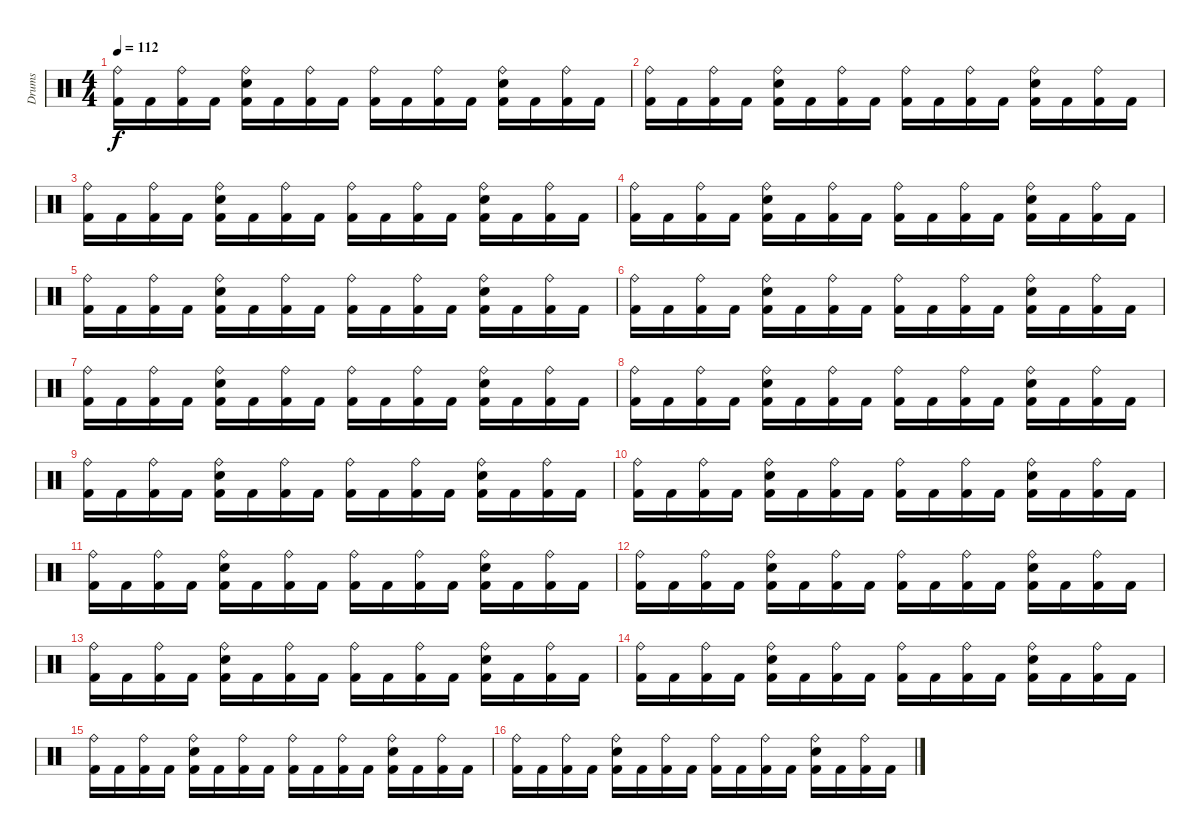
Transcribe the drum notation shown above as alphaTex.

\track ("Drums" "Drums") {instrument percussion}
\staff {score}
\articulation defaults
\ts (4 4)
\tempo 112
\clef neutral
\ks c
("Ride (bell)" "Kick (hit) 2").16{dy f} "Kick (hit) 2".16 ("Ride (bell)" "Kick (hit) 2").16 "Kick (hit) 2".16 ("Ride (bell)" "Electric Snare (hit)" "Kick (hit) 2").16 "Kick (hit) 2".16 ("Ride (bell)" "Kick (hit) 2").16 "Kick (hit) 2".16 ("Ride (bell)" "Kick (hit) 2").16 "Kick (hit) 2".16 ("Ride (bell)" "Kick (hit) 2").16 "Kick (hit) 2".16 ("Ride (bell)" "Electric Snare (hit)" "Kick (hit) 2").16 "Kick (hit) 2".16 ("Ride (bell)" "Kick (hit) 2").16 "Kick (hit) 2".16 |
("Ride (bell)" "Kick (hit) 2").16 "Kick (hit) 2".16 ("Ride (bell)" "Kick (hit) 2").16 "Kick (hit) 2".16 ("Ride (bell)" "Electric Snare (hit)" "Kick (hit) 2").16 "Kick (hit) 2".16 ("Ride (bell)" "Kick (hit) 2").16 "Kick (hit) 2".16 ("Ride (bell)" "Kick (hit) 2").16 "Kick (hit) 2".16 ("Ride (bell)" "Kick (hit) 2").16 "Kick (hit) 2".16 ("Ride (bell)" "Electric Snare (hit)" "Kick (hit) 2").16 "Kick (hit) 2".16 ("Ride (bell)" "Kick (hit) 2").16 "Kick (hit) 2".16 |
("Ride (bell)" "Kick (hit) 2").16 "Kick (hit) 2".16 ("Ride (bell)" "Kick (hit) 2").16 "Kick (hit) 2".16 ("Ride (bell)" "Electric Snare (hit)" "Kick (hit) 2").16 "Kick (hit) 2".16 ("Ride (bell)" "Kick (hit) 2").16 "Kick (hit) 2".16 ("Ride (bell)" "Kick (hit) 2").16 "Kick (hit) 2".16 ("Ride (bell)" "Kick (hit) 2").16 "Kick (hit) 2".16 ("Ride (bell)" "Electric Snare (hit)" "Kick (hit) 2").16 "Kick (hit) 2".16 ("Ride (bell)" "Kick (hit) 2").16 "Kick (hit) 2".16 |
("Ride (bell)" "Kick (hit) 2").16 "Kick (hit) 2".16 ("Ride (bell)" "Kick (hit) 2").16 "Kick (hit) 2".16 ("Ride (bell)" "Electric Snare (hit)" "Kick (hit) 2").16 "Kick (hit) 2".16 ("Ride (bell)" "Kick (hit) 2").16 "Kick (hit) 2".16 ("Ride (bell)" "Kick (hit) 2").16 "Kick (hit) 2".16 ("Ride (bell)" "Kick (hit) 2").16 "Kick (hit) 2".16 ("Ride (bell)" "Electric Snare (hit)" "Kick (hit) 2").16 "Kick (hit) 2".16 ("Ride (bell)" "Kick (hit) 2").16 "Kick (hit) 2".16 |
("Ride (bell)" "Kick (hit) 2").16 "Kick (hit) 2".16 ("Ride (bell)" "Kick (hit) 2").16 "Kick (hit) 2".16 ("Ride (bell)" "Electric Snare (hit)" "Kick (hit) 2").16 "Kick (hit) 2".16 ("Ride (bell)" "Kick (hit) 2").16 "Kick (hit) 2".16 ("Ride (bell)" "Kick (hit) 2").16 "Kick (hit) 2".16 ("Ride (bell)" "Kick (hit) 2").16 "Kick (hit) 2".16 ("Ride (bell)" "Electric Snare (hit)" "Kick (hit) 2").16 "Kick (hit) 2".16 ("Ride (bell)" "Kick (hit) 2").16 "Kick (hit) 2".16 |
("Ride (bell)" "Kick (hit) 2").16 "Kick (hit) 2".16 ("Ride (bell)" "Kick (hit) 2").16 "Kick (hit) 2".16 ("Ride (bell)" "Electric Snare (hit)" "Kick (hit) 2").16 "Kick (hit) 2".16 ("Ride (bell)" "Kick (hit) 2").16 "Kick (hit) 2".16 ("Ride (bell)" "Kick (hit) 2").16 "Kick (hit) 2".16 ("Ride (bell)" "Kick (hit) 2").16 "Kick (hit) 2".16 ("Ride (bell)" "Electric Snare (hit)" "Kick (hit) 2").16 "Kick (hit) 2".16 ("Ride (bell)" "Kick (hit) 2").16 "Kick (hit) 2".16 |
("Ride (bell)" "Kick (hit) 2").16 "Kick (hit) 2".16 ("Ride (bell)" "Kick (hit) 2").16 "Kick (hit) 2".16 ("Ride (bell)" "Electric Snare (hit)" "Kick (hit) 2").16 "Kick (hit) 2".16 ("Ride (bell)" "Kick (hit) 2").16 "Kick (hit) 2".16 ("Ride (bell)" "Kick (hit) 2").16 "Kick (hit) 2".16 ("Ride (bell)" "Kick (hit) 2").16 "Kick (hit) 2".16 ("Ride (bell)" "Electric Snare (hit)" "Kick (hit) 2").16 "Kick (hit) 2".16 ("Ride (bell)" "Kick (hit) 2").16 "Kick (hit) 2".16 |
("Ride (bell)" "Kick (hit) 2").16 "Kick (hit) 2".16 ("Ride (bell)" "Kick (hit) 2").16 "Kick (hit) 2".16 ("Ride (bell)" "Electric Snare (hit)" "Kick (hit) 2").16 "Kick (hit) 2".16 ("Ride (bell)" "Kick (hit) 2").16 "Kick (hit) 2".16 ("Ride (bell)" "Kick (hit) 2").16 "Kick (hit) 2".16 ("Ride (bell)" "Kick (hit) 2").16 "Kick (hit) 2".16 ("Ride (bell)" "Electric Snare (hit)" "Kick (hit) 2").16 "Kick (hit) 2".16 ("Ride (bell)" "Kick (hit) 2").16 "Kick (hit) 2".16 |
("Ride (bell)" "Kick (hit) 2").16 "Kick (hit) 2".16 ("Ride (bell)" "Kick (hit) 2").16 "Kick (hit) 2".16 ("Ride (bell)" "Electric Snare (hit)" "Kick (hit) 2").16 "Kick (hit) 2".16 ("Ride (bell)" "Kick (hit) 2").16 "Kick (hit) 2".16 ("Ride (bell)" "Kick (hit) 2").16 "Kick (hit) 2".16 ("Ride (bell)" "Kick (hit) 2").16 "Kick (hit) 2".16 ("Ride (bell)" "Electric Snare (hit)" "Kick (hit) 2").16 "Kick (hit) 2".16 ("Ride (bell)" "Kick (hit) 2").16 "Kick (hit) 2".16 |
("Ride (bell)" "Kick (hit) 2").16 "Kick (hit) 2".16 ("Ride (bell)" "Kick (hit) 2").16 "Kick (hit) 2".16 ("Ride (bell)" "Electric Snare (hit)" "Kick (hit) 2").16 "Kick (hit) 2".16 ("Ride (bell)" "Kick (hit) 2").16 "Kick (hit) 2".16 ("Ride (bell)" "Kick (hit) 2").16 "Kick (hit) 2".16 ("Ride (bell)" "Kick (hit) 2").16 "Kick (hit) 2".16 ("Ride (bell)" "Electric Snare (hit)" "Kick (hit) 2").16 "Kick (hit) 2".16 ("Ride (bell)" "Kick (hit) 2").16 "Kick (hit) 2".16 |
("Ride (bell)" "Kick (hit) 2").16 "Kick (hit) 2".16 ("Ride (bell)" "Kick (hit) 2").16 "Kick (hit) 2".16 ("Ride (bell)" "Electric Snare (hit)" "Kick (hit) 2").16 "Kick (hit) 2".16 ("Ride (bell)" "Kick (hit) 2").16 "Kick (hit) 2".16 ("Ride (bell)" "Kick (hit) 2").16 "Kick (hit) 2".16 ("Ride (bell)" "Kick (hit) 2").16 "Kick (hit) 2".16 ("Ride (bell)" "Electric Snare (hit)" "Kick (hit) 2").16 "Kick (hit) 2".16 ("Ride (bell)" "Kick (hit) 2").16 "Kick (hit) 2".16 |
("Ride (bell)" "Kick (hit) 2").16 "Kick (hit) 2".16 ("Ride (bell)" "Kick (hit) 2").16 "Kick (hit) 2".16 ("Ride (bell)" "Electric Snare (hit)" "Kick (hit) 2").16 "Kick (hit) 2".16 ("Ride (bell)" "Kick (hit) 2").16 "Kick (hit) 2".16 ("Ride (bell)" "Kick (hit) 2").16 "Kick (hit) 2".16 ("Ride (bell)" "Kick (hit) 2").16 "Kick (hit) 2".16 ("Ride (bell)" "Electric Snare (hit)" "Kick (hit) 2").16 "Kick (hit) 2".16 ("Ride (bell)" "Kick (hit) 2").16 "Kick (hit) 2".16 |
("Ride (bell)" "Kick (hit) 2").16 "Kick (hit) 2".16 ("Ride (bell)" "Kick (hit) 2").16 "Kick (hit) 2".16 ("Ride (bell)" "Electric Snare (hit)" "Kick (hit) 2").16 "Kick (hit) 2".16 ("Ride (bell)" "Kick (hit) 2").16 "Kick (hit) 2".16 ("Ride (bell)" "Kick (hit) 2").16 "Kick (hit) 2".16 ("Ride (bell)" "Kick (hit) 2").16 "Kick (hit) 2".16 ("Ride (bell)" "Electric Snare (hit)" "Kick (hit) 2").16 "Kick (hit) 2".16 ("Ride (bell)" "Kick (hit) 2").16 "Kick (hit) 2".16 |
("Ride (bell)" "Kick (hit) 2").16 "Kick (hit) 2".16 ("Ride (bell)" "Kick (hit) 2").16 "Kick (hit) 2".16 ("Ride (bell)" "Electric Snare (hit)" "Kick (hit) 2").16 "Kick (hit) 2".16 ("Ride (bell)" "Kick (hit) 2").16 "Kick (hit) 2".16 ("Ride (bell)" "Kick (hit) 2").16 "Kick (hit) 2".16 ("Ride (bell)" "Kick (hit) 2").16 "Kick (hit) 2".16 ("Ride (bell)" "Electric Snare (hit)" "Kick (hit) 2").16 "Kick (hit) 2".16 ("Ride (bell)" "Kick (hit) 2").16 "Kick (hit) 2".16 |
("Ride (bell)" "Kick (hit) 2").16 "Kick (hit) 2".16 ("Ride (bell)" "Kick (hit) 2").16 "Kick (hit) 2".16 ("Ride (bell)" "Electric Snare (hit)" "Kick (hit) 2").16 "Kick (hit) 2".16 ("Ride (bell)" "Kick (hit) 2").16 "Kick (hit) 2".16 ("Ride (bell)" "Kick (hit) 2").16 "Kick (hit) 2".16 ("Ride (bell)" "Kick (hit) 2").16 "Kick (hit) 2".16 ("Ride (bell)" "Electric Snare (hit)" "Kick (hit) 2").16 "Kick (hit) 2".16 ("Ride (bell)" "Kick (hit) 2").16 "Kick (hit) 2".16 |
("Ride (bell)" "Kick (hit) 2").16 "Kick (hit) 2".16 ("Ride (bell)" "Kick (hit) 2").16 "Kick (hit) 2".16 ("Ride (bell)" "Electric Snare (hit)" "Kick (hit) 2").16 "Kick (hit) 2".16 ("Ride (bell)" "Kick (hit) 2").16 "Kick (hit) 2".16 ("Ride (bell)" "Kick (hit) 2").16 "Kick (hit) 2".16 ("Ride (bell)" "Kick (hit) 2").16 "Kick (hit) 2".16 ("Ride (bell)" "Electric Snare (hit)" "Kick (hit) 2").16 "Kick (hit) 2".16 ("Ride (bell)" "Kick (hit) 2").16 "Kick (hit) 2".16
